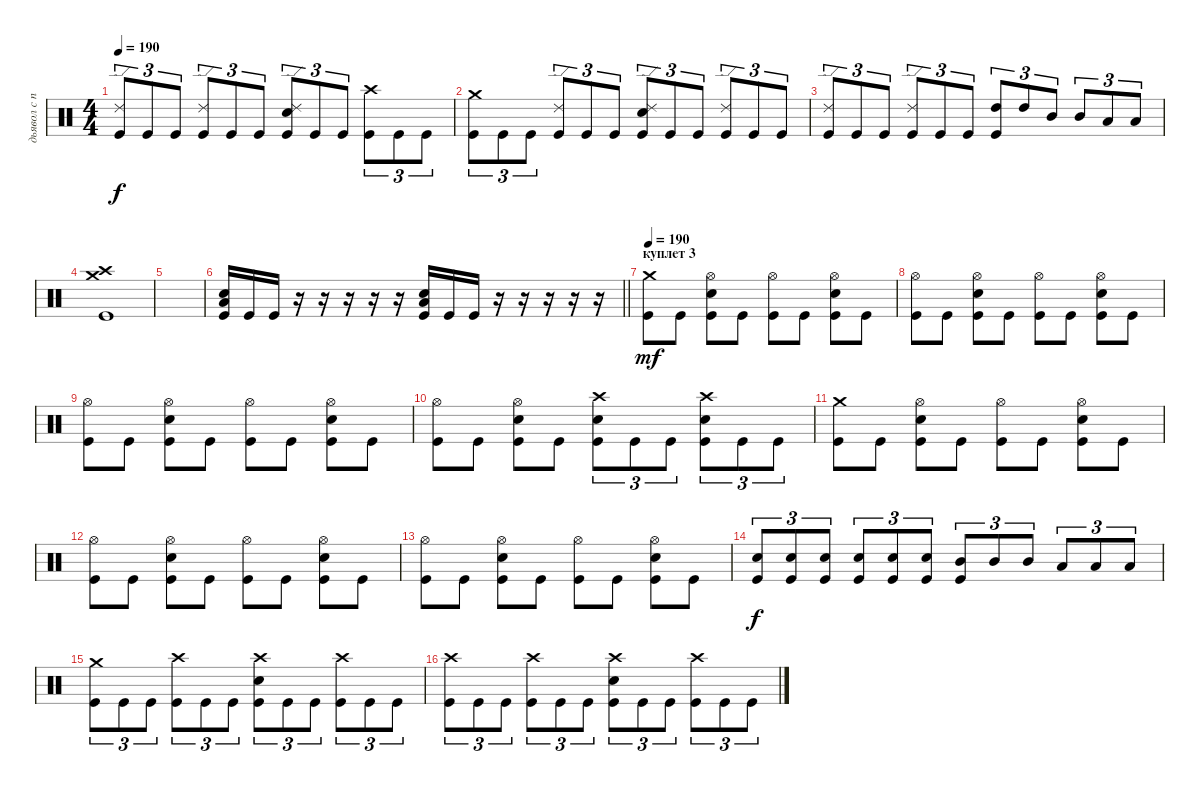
\track ("дьявол с палками" "дьявол с п") {instrument percussion}
\staff {score}
\articulation defaults
\ts (4 4)
\tempo 190
\clef neutral
\ks c
("Kick (hit)" "Ride (edge) 2").8{tu (3 2) dy f} "Kick (hit)".8{tu (3 2)} "Kick (hit)".8{tu (3 2)} ("Kick (hit)" "Ride (edge) 2").8{tu (3 2)} "Kick (hit)".8{tu (3 2)} "Kick (hit)".8{tu (3 2)} ("Kick (hit)" "Snare (hit) 2" "Ride (edge) 2").8{tu (3 2)} "Kick (hit)".8{tu (3 2)} "Kick (hit)".8{tu (3 2)} ("Kick (hit)" "Crash high (hit)").8{tu (3 2)} "Kick (hit)".8{tu (3 2)} "Kick (hit)".8{tu (3 2)} |
("Kick (hit)" "Crash medium (hit)").8{tu (3 2)} "Kick (hit)".8{tu (3 2)} "Kick (hit)".8{tu (3 2)} ("Kick (hit)" "Ride (edge) 2").8{tu (3 2)} "Kick (hit)".8{tu (3 2)} "Kick (hit)".8{tu (3 2)} ("Kick (hit)" "Snare (hit) 2" "Ride (edge) 2").8{tu (3 2)} "Kick (hit)".8{tu (3 2)} "Kick (hit)".8{tu (3 2)} ("Kick (hit)" "Ride (edge) 2").8{tu (3 2)} "Kick (hit)".8{tu (3 2)} "Kick (hit)".8{tu (3 2)} |
("Kick (hit)" "Ride (edge) 2").8{tu (3 2)} "Kick (hit)".8{tu (3 2)} "Kick (hit)".8{tu (3 2)} ("Kick (hit)" "Ride (edge) 2").8{tu (3 2)} "Kick (hit)".8{tu (3 2)} "Kick (hit)".8{tu (3 2)} ("Kick (hit)" "High Tom (hit)").8{tu (3 2)} "High Tom (hit)".8{tu (3 2)} "Mid Tom (hit)".8{tu (3 2)} "Mid Tom (hit)".8{tu (3 2)} "Low Tom (hit)".8{tu (3 2)} "Low Tom (hit)".8{tu (3 2)} |
("Kick (hit)" "Crash medium (hit)" "Crash high (hit)").1 |
|
\barLineRight lightlight
("Kick (hit)" "Snare (hit) 2" "Low Floor Tom (hit)").16 "Kick (hit)".16 "Kick (hit)".16 r.16 r.16 r.16 r.16 r.16 ("Kick (hit)" "Low Floor Tom (hit)" "Snare (hit) 2").16 "Kick (hit)".16 "Kick (hit)".16 r.16 r.16 r.16 r.16 r.16 |
\section ("" "куплет 3")
\tempo 190
("Kick (hit)" "Crash medium (hit)").8{dy mf} "Kick (hit)".8 ("Kick (hit)" "Snare (hit) 2" "Hi-Hat (open)").8 "Kick (hit)".8 ("Kick (hit)" "Hi-Hat (open)").8 "Kick (hit)".8 ("Kick (hit)" "Snare (hit) 2" "Hi-Hat (open)").8 "Kick (hit)".8 |
("Kick (hit)" "Hi-Hat (open)").8 "Kick (hit)".8 ("Kick (hit)" "Snare (hit) 2" "Hi-Hat (open)").8 "Kick (hit)".8 ("Kick (hit)" "Hi-Hat (open)").8 "Kick (hit)".8 ("Kick (hit)" "Snare (hit) 2" "Hi-Hat (open)").8 "Kick (hit)".8 |
("Kick (hit)" "Hi-Hat (open)").8 "Kick (hit)".8 ("Kick (hit)" "Snare (hit) 2" "Hi-Hat (open)").8 "Kick (hit)".8 ("Kick (hit)" "Hi-Hat (open)").8 "Kick (hit)".8 ("Kick (hit)" "Snare (hit) 2" "Hi-Hat (open)").8 "Kick (hit)".8 |
("Kick (hit)" "Hi-Hat (open)").8 "Kick (hit)".8 ("Kick (hit)" "Snare (hit) 2" "Hi-Hat (open)").8 "Kick (hit)".8 ("Kick (hit)" "Snare (hit) 2" "Crash high (hit)").8{tu (3 2)} "Kick (hit)".8{tu (3 2)} "Kick (hit)".8{tu (3 2)} ("Kick (hit)" "Snare (hit) 2" "Crash high (hit)").8{tu (3 2)} "Kick (hit)".8{tu (3 2)} "Kick (hit)".8{tu (3 2)} |
("Kick (hit)" "Crash medium (hit)").8 "Kick (hit)".8 ("Kick (hit)" "Snare (hit) 2" "Hi-Hat (open)").8 "Kick (hit)".8 ("Kick (hit)" "Hi-Hat (open)").8 "Kick (hit)".8 ("Kick (hit)" "Snare (hit) 2" "Hi-Hat (open)").8 "Kick (hit)".8 |
("Kick (hit)" "Hi-Hat (open)").8 "Kick (hit)".8 ("Kick (hit)" "Snare (hit) 2" "Hi-Hat (open)").8 "Kick (hit)".8 ("Kick (hit)" "Hi-Hat (open)").8 "Kick (hit)".8 ("Kick (hit)" "Snare (hit) 2" "Hi-Hat (open)").8 "Kick (hit)".8 |
("Kick (hit)" "Hi-Hat (open)").8 "Kick (hit)".8 ("Kick (hit)" "Snare (hit) 2" "Hi-Hat (open)").8 "Kick (hit)".8 ("Kick (hit)" "Hi-Hat (open)").8 "Kick (hit)".8 ("Kick (hit)" "Snare (hit) 2" "Hi-Hat (open)").8 "Kick (hit)".8 |
("Kick (hit)" "Snare (hit) 2").8{tu (3 2) dy f} ("Kick (hit)" "Snare (hit) 2").8{tu (3 2)} ("Kick (hit)" "Snare (hit) 2").8{tu (3 2)} ("Kick (hit)" "Snare (hit) 2").8{tu (3 2)} ("Kick (hit)" "Snare (hit) 2").8{tu (3 2)} ("Kick (hit)" "Snare (hit) 2").8{tu (3 2)} ("Kick (hit)" "Mid Tom (hit)").8{tu (3 2)} "Mid Tom (hit)".8{tu (3 2)} "Mid Tom (hit)".8{tu (3 2)} "Low Tom (hit)".8{tu (3 2)} "Low Tom (hit)".8{tu (3 2)} "Low Tom (hit)".8{tu (3 2)} |
("Kick (hit)" "Crash medium (hit)").8{tu (3 2)} "Kick (hit)".8{tu (3 2)} "Kick (hit)".8{tu (3 2)} ("Kick (hit)" "Crash high (hit)").8{tu (3 2)} "Kick (hit)".8{tu (3 2)} "Kick (hit)".8{tu (3 2)} ("Kick (hit)" "Snare (hit) 2" "Crash high (hit)").8{tu (3 2)} "Kick (hit)".8{tu (3 2)} "Kick (hit)".8{tu (3 2)} ("Kick (hit)" "Crash high (hit)").8{tu (3 2)} "Kick (hit)".8{tu (3 2)} "Kick (hit)".8{tu (3 2)} |
("Kick (hit)" "Crash high (hit)").8{tu (3 2)} "Kick (hit)".8{tu (3 2)} "Kick (hit)".8{tu (3 2)} ("Kick (hit)" "Crash high (hit)").8{tu (3 2)} "Kick (hit)".8{tu (3 2)} "Kick (hit)".8{tu (3 2)} ("Kick (hit)" "Snare (hit) 2" "Crash high (hit)").8{tu (3 2)} "Kick (hit)".8{tu (3 2)} "Kick (hit)".8{tu (3 2)} ("Kick (hit)" "Crash high (hit)").8{tu (3 2)} "Kick (hit)".8{tu (3 2)} "Kick (hit)".8{tu (3 2)}
